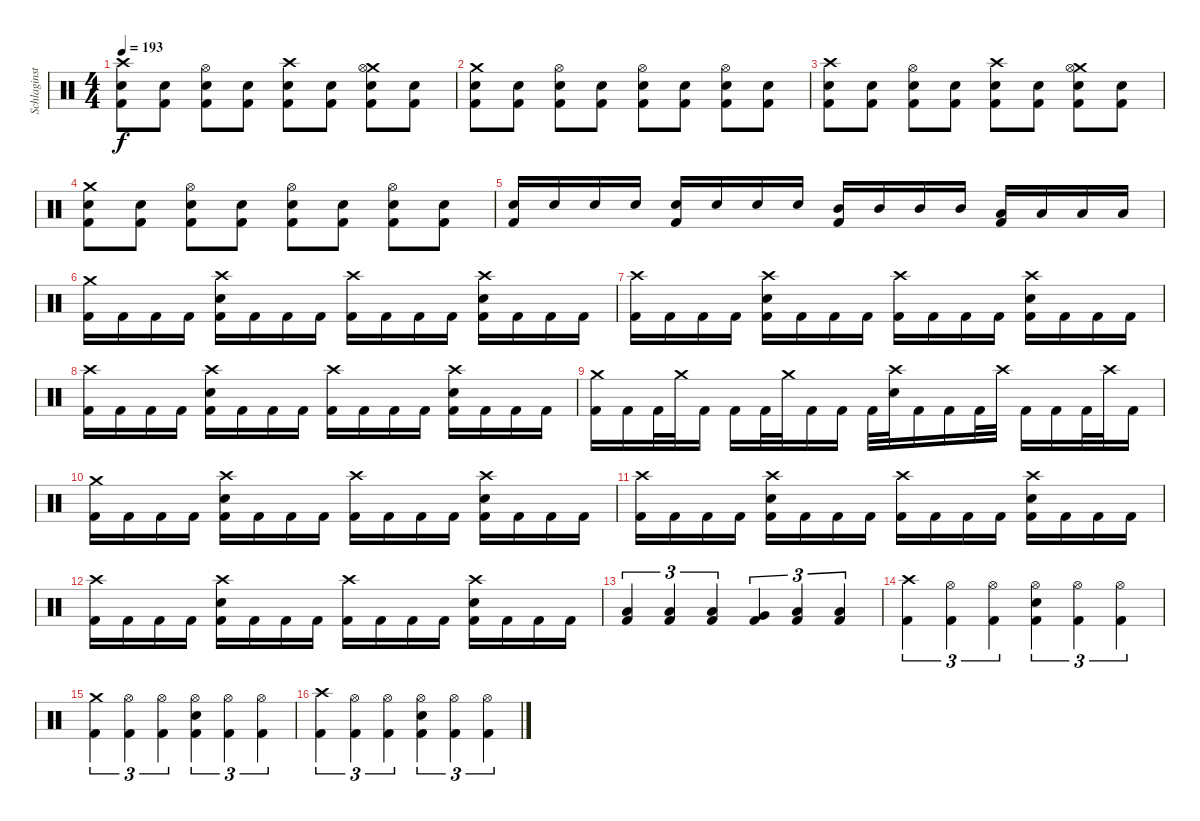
\track ("Schlaginstrumente - Auswahl" "Schlaginst") {instrument percussion}
\staff {score}
\articulation defaults
\ts (4 4)
\tempo 193
\clef neutral
\ks c
("Crash high (hit)" "Electric Snare (hit)" "Kick (hit) 2").8{dy f} ("Electric Snare (hit)" "Kick (hit) 2").8 ("Hi-Hat (open)" "Electric Snare (hit)" "Kick (hit) 2").8 ("Electric Snare (hit)" "Kick (hit) 2").8 ("Crash high (hit)" "Electric Snare (hit)" "Kick (hit) 2").8 ("Electric Snare (hit)" "Kick (hit) 2").8 ("Crash medium (hit)" "Hi-Hat (open)" "Electric Snare (hit)" "Kick (hit) 2").8 ("Electric Snare (hit)" "Kick (hit) 2").8 |
("Crash medium (hit)" "Electric Snare (hit)" "Kick (hit) 2").8 ("Electric Snare (hit)" "Kick (hit) 2").8 ("Hi-Hat (open)" "Electric Snare (hit)" "Kick (hit) 2").8 ("Electric Snare (hit)" "Kick (hit) 2").8 ("Hi-Hat (open)" "Electric Snare (hit)" "Kick (hit) 2").8 ("Electric Snare (hit)" "Kick (hit) 2").8 ("Hi-Hat (open)" "Electric Snare (hit)" "Kick (hit) 2").8 ("Electric Snare (hit)" "Kick (hit) 2").8 |
("Crash high (hit)" "Electric Snare (hit)" "Kick (hit) 2").8 ("Electric Snare (hit)" "Kick (hit) 2").8 ("Hi-Hat (open)" "Electric Snare (hit)" "Kick (hit) 2").8 ("Electric Snare (hit)" "Kick (hit) 2").8 ("Crash high (hit)" "Electric Snare (hit)" "Kick (hit) 2").8 ("Electric Snare (hit)" "Kick (hit) 2").8 ("Crash medium (hit)" "Hi-Hat (open)" "Electric Snare (hit)" "Kick (hit) 2").8 ("Electric Snare (hit)" "Kick (hit) 2").8 |
("Crash medium (hit)" "Electric Snare (hit)" "Kick (hit) 2").8 ("Electric Snare (hit)" "Kick (hit) 2").8 ("Hi-Hat (open)" "Electric Snare (hit)" "Kick (hit) 2").8 ("Electric Snare (hit)" "Kick (hit) 2").8 ("Hi-Hat (open)" "Electric Snare (hit)" "Kick (hit) 2").8 ("Electric Snare (hit)" "Kick (hit) 2").8 ("Hi-Hat (open)" "Electric Snare (hit)" "Kick (hit) 2").8 ("Electric Snare (hit)" "Kick (hit) 2").8 |
("Electric Snare (hit)" "Kick (hit) 2").16 "Electric Snare (hit)".16 "Electric Snare (hit)".16 "Electric Snare (hit)".16 ("Electric Snare (hit)" "Kick (hit) 2").16 "Electric Snare (hit)".16 "Electric Snare (hit)".16 "Electric Snare (hit)".16 ("Mid Tom (hit)" "Kick (hit) 2").16 "Mid Tom (hit)".16 "Mid Tom (hit)".16 "Mid Tom (hit)".16 ("Low Tom (hit)" "Kick (hit) 2").16 "Low Tom (hit)".16 "Low Tom (hit)".16 "Low Tom (hit)".16 |
("Crash medium (hit)" "Kick (hit) 2").16 "Kick (hit) 2".16 "Kick (hit) 2".16 "Kick (hit) 2".16 ("Crash high (hit)" "Electric Snare (hit)" "Kick (hit) 2").16 "Kick (hit) 2".16 "Kick (hit) 2".16 "Kick (hit) 2".16 ("Crash high (hit)" "Kick (hit) 2").16 "Kick (hit) 2".16 "Kick (hit) 2".16 "Kick (hit) 2".16 ("Crash high (hit)" "Electric Snare (hit)" "Kick (hit) 2").16 "Kick (hit) 2".16 "Kick (hit) 2".16 "Kick (hit) 2".16 |
("Crash high (hit)" "Kick (hit) 2").16 "Kick (hit) 2".16 "Kick (hit) 2".16 "Kick (hit) 2".16 ("Crash high (hit)" "Electric Snare (hit)" "Kick (hit) 2").16 "Kick (hit) 2".16 "Kick (hit) 2".16 "Kick (hit) 2".16 ("Crash high (hit)" "Kick (hit) 2").16 "Kick (hit) 2".16 "Kick (hit) 2".16 "Kick (hit) 2".16 ("Crash high (hit)" "Electric Snare (hit)" "Kick (hit) 2").16 "Kick (hit) 2".16 "Kick (hit) 2".16 "Kick (hit) 2".16 |
("Crash high (hit)" "Kick (hit) 2").16 "Kick (hit) 2".16 "Kick (hit) 2".16 "Kick (hit) 2".16 ("Crash high (hit)" "Electric Snare (hit)" "Kick (hit) 2").16 "Kick (hit) 2".16 "Kick (hit) 2".16 "Kick (hit) 2".16 ("Crash high (hit)" "Kick (hit) 2").16 "Kick (hit) 2".16 "Kick (hit) 2".16 "Kick (hit) 2".16 ("Crash high (hit)" "Electric Snare (hit)" "Kick (hit) 2").16 "Kick (hit) 2".16 "Kick (hit) 2".16 "Kick (hit) 2".16 |
("Crash medium (hit)" "Kick (hit) 2").16 "Kick (hit) 2".16 "Kick (hit) 2".32 "Crash medium (hit)".32 "Kick (hit) 2".16 "Kick (hit) 2".16 "Kick (hit) 2".32 "Crash medium (hit)".32 "Kick (hit) 2".16 "Kick (hit) 2".16 "Kick (hit) 2".32 ("Crash high (hit)" "Electric Snare (hit)").32 "Kick (hit) 2".16 "Kick (hit) 2".16 "Kick (hit) 2".32 "Crash high (hit)".32 "Kick (hit) 2".16 "Kick (hit) 2".16 "Kick (hit) 2".32 "Crash high (hit)".32 "Kick (hit) 2".16 |
("Crash medium (hit)" "Kick (hit) 2").16 "Kick (hit) 2".16 "Kick (hit) 2".16 "Kick (hit) 2".16 ("Crash high (hit)" "Electric Snare (hit)" "Kick (hit) 2").16 "Kick (hit) 2".16 "Kick (hit) 2".16 "Kick (hit) 2".16 ("Crash high (hit)" "Kick (hit) 2").16 "Kick (hit) 2".16 "Kick (hit) 2".16 "Kick (hit) 2".16 ("Crash high (hit)" "Electric Snare (hit)" "Kick (hit) 2").16 "Kick (hit) 2".16 "Kick (hit) 2".16 "Kick (hit) 2".16 |
("Crash high (hit)" "Kick (hit) 2").16 "Kick (hit) 2".16 "Kick (hit) 2".16 "Kick (hit) 2".16 ("Crash high (hit)" "Electric Snare (hit)" "Kick (hit) 2").16 "Kick (hit) 2".16 "Kick (hit) 2".16 "Kick (hit) 2".16 ("Crash high (hit)" "Kick (hit) 2").16 "Kick (hit) 2".16 "Kick (hit) 2".16 "Kick (hit) 2".16 ("Crash high (hit)" "Electric Snare (hit)" "Kick (hit) 2").16 "Kick (hit) 2".16 "Kick (hit) 2".16 "Kick (hit) 2".16 |
("Crash high (hit)" "Kick (hit) 2").16 "Kick (hit) 2".16 "Kick (hit) 2".16 "Kick (hit) 2".16 ("Crash high (hit)" "Electric Snare (hit)" "Kick (hit) 2").16 "Kick (hit) 2".16 "Kick (hit) 2".16 "Kick (hit) 2".16 ("Crash high (hit)" "Kick (hit) 2").16 "Kick (hit) 2".16 "Kick (hit) 2".16 "Kick (hit) 2".16 ("Crash high (hit)" "Electric Snare (hit)" "Kick (hit) 2").16 "Kick (hit) 2".16 "Kick (hit) 2".16 "Kick (hit) 2".16 |
("Low Tom (hit)" "Kick (hit) 2").4{tu (3 2)} ("Low Tom (hit)" "Kick (hit) 2").4{tu (3 2)} ("Low Tom (hit)" "Kick (hit) 2").4{tu (3 2)} ("Very Low Tom (hit)" "Kick (hit) 2").4{tu (3 2)} ("Low Floor Tom (hit)" "Kick (hit) 2").4{tu (3 2)} ("Low Floor Tom (hit)" "Kick (hit) 2").4{tu (3 2)} |
("Crash high (hit)" "Kick (hit) 2").4{tu (3 2)} ("Hi-Hat (open)" "Kick (hit) 2").4{tu (3 2)} ("Hi-Hat (open)" "Kick (hit) 2").4{tu (3 2)} ("Hi-Hat (open)" "Electric Snare (hit)" "Kick (hit) 2").4{tu (3 2)} ("Hi-Hat (open)" "Kick (hit) 2").4{tu (3 2)} ("Hi-Hat (open)" "Kick (hit) 2").4{tu (3 2)} |
("Crash medium (hit)" "Kick (hit) 2").4{tu (3 2)} ("Hi-Hat (open)" "Kick (hit) 2").4{tu (3 2)} ("Hi-Hat (open)" "Kick (hit) 2").4{tu (3 2)} ("Hi-Hat (open)" "Electric Snare (hit)" "Kick (hit) 2").4{tu (3 2)} ("Hi-Hat (open)" "Kick (hit) 2").4{tu (3 2)} ("Hi-Hat (open)" "Kick (hit) 2").4{tu (3 2)} |
("Crash high (hit)" "Kick (hit) 2").4{tu (3 2)} ("Hi-Hat (open)" "Kick (hit) 2").4{tu (3 2)} ("Hi-Hat (open)" "Kick (hit) 2").4{tu (3 2)} ("Hi-Hat (open)" "Electric Snare (hit)" "Kick (hit) 2").4{tu (3 2)} ("Hi-Hat (open)" "Kick (hit) 2").4{tu (3 2)} ("Hi-Hat (open)" "Kick (hit) 2").4{tu (3 2)}
